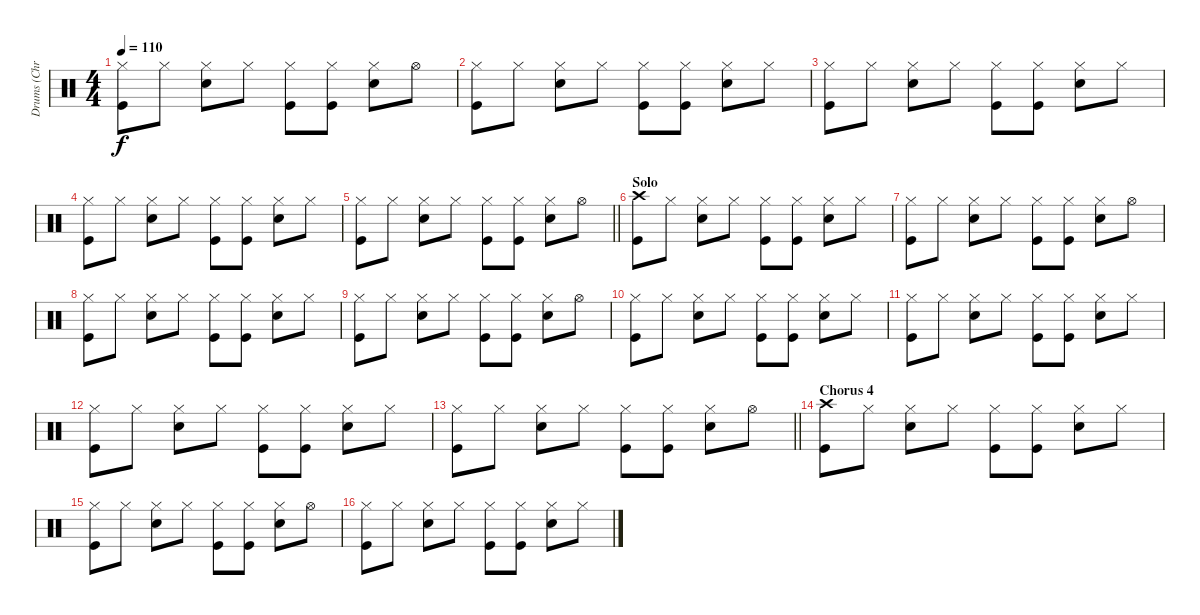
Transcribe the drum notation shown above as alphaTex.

\track ("Drums (Chris Frantz)" "Drums (Chr") {instrument percussion}
\staff {score}
\articulation defaults
\ts (4 4)
\tempo 110
\clef neutral
\ks c
("Hi-Hat (closed)" "Kick (hit)").8{dy f} "Hi-Hat (closed)".8 ("Hi-Hat (closed)" "Snare (hit) 2").8 "Hi-Hat (closed)".8 ("Hi-Hat (closed)" "Kick (hit)").8 ("Hi-Hat (closed)" "Kick (hit)").8 ("Hi-Hat (closed)" "Snare (hit) 2").8 "Hi-Hat (open)".8 |
("Hi-Hat (closed)" "Kick (hit)").8 "Hi-Hat (closed)".8 ("Hi-Hat (closed)" "Snare (hit) 2").8 "Hi-Hat (closed)".8 ("Hi-Hat (closed)" "Kick (hit)").8 ("Hi-Hat (closed)" "Kick (hit)").8 ("Hi-Hat (closed)" "Snare (hit) 2").8 "Hi-Hat (closed)".8 |
("Hi-Hat (closed)" "Kick (hit)").8 "Hi-Hat (closed)".8 ("Hi-Hat (closed)" "Snare (hit) 2").8 "Hi-Hat (closed)".8 ("Hi-Hat (closed)" "Kick (hit)").8 ("Hi-Hat (closed)" "Kick (hit)").8 ("Hi-Hat (closed)" "Snare (hit) 2").8 "Hi-Hat (closed)".8 |
("Hi-Hat (closed)" "Kick (hit)").8 "Hi-Hat (closed)".8 ("Hi-Hat (closed)" "Snare (hit) 2").8 "Hi-Hat (closed)".8 ("Hi-Hat (closed)" "Kick (hit)").8 ("Hi-Hat (closed)" "Kick (hit)").8 ("Hi-Hat (closed)" "Snare (hit) 2").8 "Hi-Hat (closed)".8 |
\barLineRight lightlight
("Hi-Hat (closed)" "Kick (hit)").8 "Hi-Hat (closed)".8 ("Hi-Hat (closed)" "Snare (hit) 2").8 "Hi-Hat (closed)".8 ("Hi-Hat (closed)" "Kick (hit)").8 ("Hi-Hat (closed)" "Kick (hit)").8 ("Hi-Hat (closed)" "Snare (hit) 2").8 "Hi-Hat (open)".8 |
\section ("" "Solo")
("Crash high (hit)" "Kick (hit)").8 "Hi-Hat (closed)".8 ("Hi-Hat (closed)" "Snare (hit) 2").8 "Hi-Hat (closed)".8 ("Hi-Hat (closed)" "Kick (hit)").8 ("Hi-Hat (closed)" "Kick (hit)").8 ("Hi-Hat (closed)" "Snare (hit) 2").8 "Hi-Hat (closed)".8 |
("Hi-Hat (closed)" "Kick (hit)").8 "Hi-Hat (closed)".8 ("Hi-Hat (closed)" "Snare (hit) 2").8 "Hi-Hat (closed)".8 ("Hi-Hat (closed)" "Kick (hit)").8 ("Hi-Hat (closed)" "Kick (hit)").8 ("Hi-Hat (closed)" "Snare (hit) 2").8 "Hi-Hat (open)".8 |
("Hi-Hat (closed)" "Kick (hit)").8 "Hi-Hat (closed)".8 ("Hi-Hat (closed)" "Snare (hit) 2").8 "Hi-Hat (closed)".8 ("Hi-Hat (closed)" "Kick (hit)").8 ("Hi-Hat (closed)" "Kick (hit)").8 ("Hi-Hat (closed)" "Snare (hit) 2").8 "Hi-Hat (closed)".8 |
("Hi-Hat (closed)" "Kick (hit)").8 "Hi-Hat (closed)".8 ("Hi-Hat (closed)" "Snare (hit) 2").8 "Hi-Hat (closed)".8 ("Hi-Hat (closed)" "Kick (hit)").8 ("Hi-Hat (closed)" "Kick (hit)").8 ("Hi-Hat (closed)" "Snare (hit) 2").8 "Hi-Hat (open)".8 |
("Hi-Hat (closed)" "Kick (hit)").8 "Hi-Hat (closed)".8 ("Hi-Hat (closed)" "Snare (hit) 2").8 "Hi-Hat (closed)".8 ("Hi-Hat (closed)" "Kick (hit)").8 ("Hi-Hat (closed)" "Kick (hit)").8 ("Hi-Hat (closed)" "Snare (hit) 2").8 "Hi-Hat (closed)".8 |
("Hi-Hat (closed)" "Kick (hit)").8 "Hi-Hat (closed)".8 ("Hi-Hat (closed)" "Snare (hit) 2").8 "Hi-Hat (closed)".8 ("Hi-Hat (closed)" "Kick (hit)").8 ("Hi-Hat (closed)" "Kick (hit)").8 ("Hi-Hat (closed)" "Snare (hit) 2").8 "Hi-Hat (closed)".8 |
("Hi-Hat (closed)" "Kick (hit)").8 "Hi-Hat (closed)".8 ("Hi-Hat (closed)" "Snare (hit) 2").8 "Hi-Hat (closed)".8 ("Hi-Hat (closed)" "Kick (hit)").8 ("Hi-Hat (closed)" "Kick (hit)").8 ("Hi-Hat (closed)" "Snare (hit) 2").8 "Hi-Hat (closed)".8 |
\barLineRight lightlight
("Hi-Hat (closed)" "Kick (hit)").8 "Hi-Hat (closed)".8 ("Hi-Hat (closed)" "Snare (hit) 2").8 "Hi-Hat (closed)".8 ("Hi-Hat (closed)" "Kick (hit)").8 ("Hi-Hat (closed)" "Kick (hit)").8 ("Hi-Hat (closed)" "Snare (hit) 2").8 "Hi-Hat (open)".8 |
\section ("" "Chorus 4")
("Crash high (hit)" "Kick (hit)").8 "Hi-Hat (closed)".8 ("Hi-Hat (closed)" "Snare (hit) 2").8 "Hi-Hat (closed)".8 ("Hi-Hat (closed)" "Kick (hit)").8 ("Hi-Hat (closed)" "Kick (hit)").8 ("Hi-Hat (closed)" "Snare (hit) 2").8 "Hi-Hat (closed)".8 |
("Hi-Hat (closed)" "Kick (hit)").8 "Hi-Hat (closed)".8 ("Hi-Hat (closed)" "Snare (hit) 2").8 "Hi-Hat (closed)".8 ("Hi-Hat (closed)" "Kick (hit)").8 ("Hi-Hat (closed)" "Kick (hit)").8 ("Hi-Hat (closed)" "Snare (hit) 2").8 "Hi-Hat (open)".8 |
("Hi-Hat (closed)" "Kick (hit)").8 "Hi-Hat (closed)".8 ("Hi-Hat (closed)" "Snare (hit) 2").8 "Hi-Hat (closed)".8 ("Hi-Hat (closed)" "Kick (hit)").8 ("Hi-Hat (closed)" "Kick (hit)").8 ("Hi-Hat (closed)" "Snare (hit) 2").8 "Hi-Hat (closed)".8
